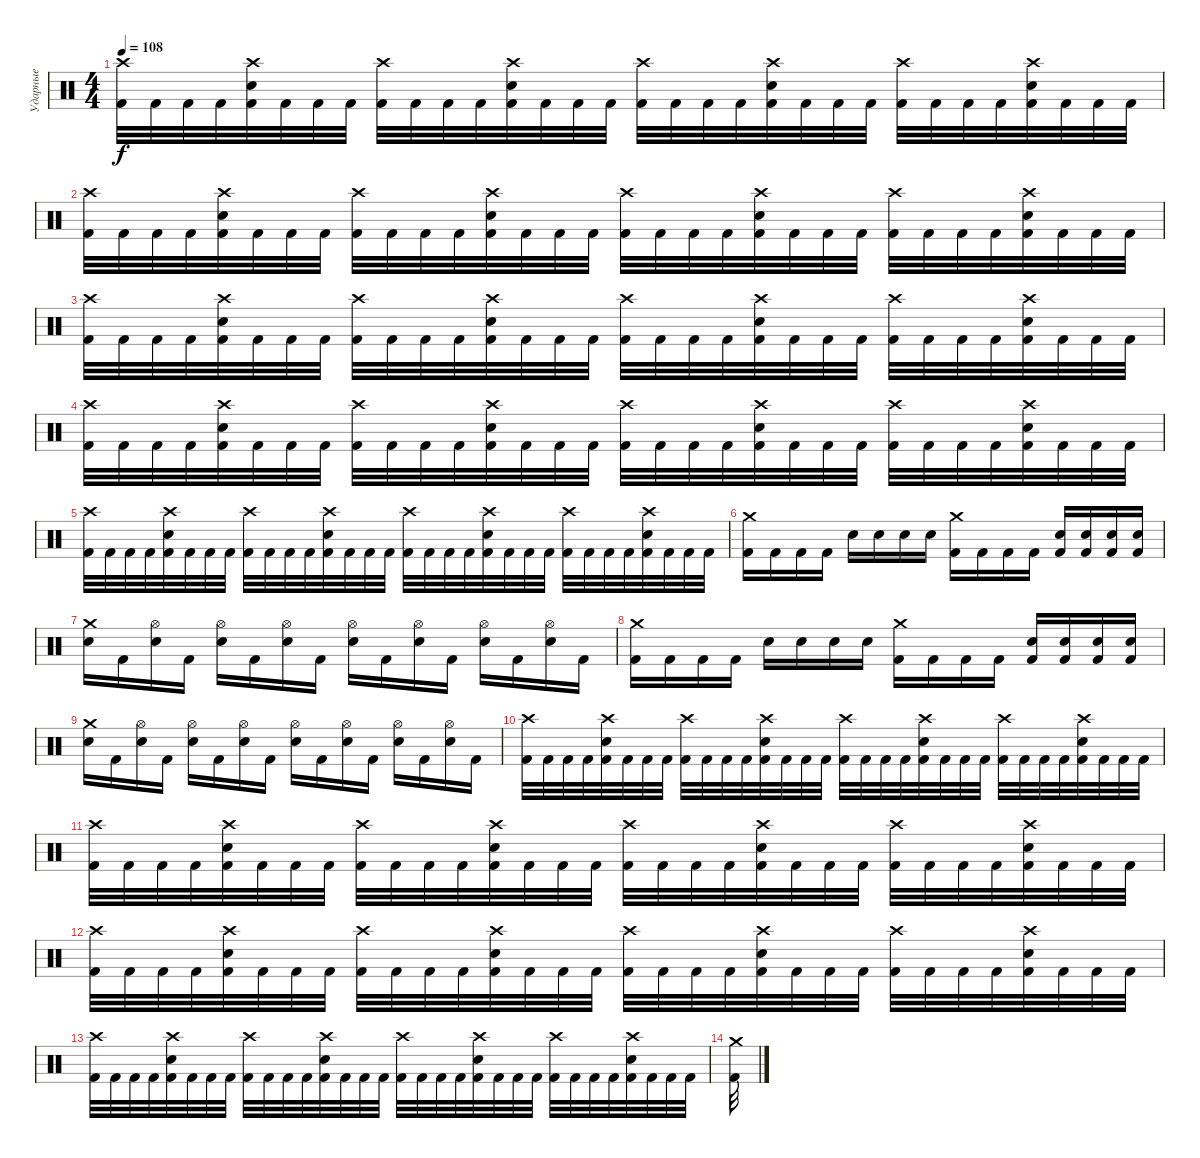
\track ("Ударные" "Ударные") {instrument percussion}
\staff {score}
\articulation defaults
\ts (4 4)
\tempo 108
\clef neutral
\ks c
("Kick (hit) 2" "Crash high (hit)").32{dy f} "Kick (hit) 2".32 "Kick (hit) 2".32 "Kick (hit) 2".32 ("Kick (hit) 2" "Electric Snare (hit)" "Crash high (hit)").32 "Kick (hit) 2".32 "Kick (hit) 2".32 "Kick (hit) 2".32 ("Kick (hit) 2" "Crash high (hit)").32 "Kick (hit) 2".32 "Kick (hit) 2".32 "Kick (hit) 2".32 ("Kick (hit) 2" "Electric Snare (hit)" "Crash high (hit)").32 "Kick (hit) 2".32 "Kick (hit) 2".32 "Kick (hit) 2".32 ("Kick (hit) 2" "Crash high (hit)").32 "Kick (hit) 2".32 "Kick (hit) 2".32 "Kick (hit) 2".32 ("Kick (hit) 2" "Electric Snare (hit)" "Crash high (hit)").32 "Kick (hit) 2".32 "Kick (hit) 2".32 "Kick (hit) 2".32 ("Kick (hit) 2" "Crash high (hit)").32 "Kick (hit) 2".32 "Kick (hit) 2".32 "Kick (hit) 2".32 ("Kick (hit) 2" "Electric Snare (hit)" "Crash high (hit)").32 "Kick (hit) 2".32 "Kick (hit) 2".32 "Kick (hit) 2".32 |
("Kick (hit) 2" "Crash high (hit)").32 "Kick (hit) 2".32 "Kick (hit) 2".32 "Kick (hit) 2".32 ("Kick (hit) 2" "Electric Snare (hit)" "Crash high (hit)").32 "Kick (hit) 2".32 "Kick (hit) 2".32 "Kick (hit) 2".32 ("Kick (hit) 2" "Crash high (hit)").32 "Kick (hit) 2".32 "Kick (hit) 2".32 "Kick (hit) 2".32 ("Kick (hit) 2" "Electric Snare (hit)" "Crash high (hit)").32 "Kick (hit) 2".32 "Kick (hit) 2".32 "Kick (hit) 2".32 ("Kick (hit) 2" "Crash high (hit)").32 "Kick (hit) 2".32 "Kick (hit) 2".32 "Kick (hit) 2".32 ("Kick (hit) 2" "Electric Snare (hit)" "Crash high (hit)").32 "Kick (hit) 2".32 "Kick (hit) 2".32 "Kick (hit) 2".32 ("Kick (hit) 2" "Crash high (hit)").32 "Kick (hit) 2".32 "Kick (hit) 2".32 "Kick (hit) 2".32 ("Kick (hit) 2" "Electric Snare (hit)" "Crash high (hit)").32 "Kick (hit) 2".32 "Kick (hit) 2".32 "Kick (hit) 2".32 |
("Kick (hit) 2" "Crash high (hit)").32 "Kick (hit) 2".32 "Kick (hit) 2".32 "Kick (hit) 2".32 ("Kick (hit) 2" "Electric Snare (hit)" "Crash high (hit)").32 "Kick (hit) 2".32 "Kick (hit) 2".32 "Kick (hit) 2".32 ("Kick (hit) 2" "Crash high (hit)").32 "Kick (hit) 2".32 "Kick (hit) 2".32 "Kick (hit) 2".32 ("Kick (hit) 2" "Electric Snare (hit)" "Crash high (hit)").32 "Kick (hit) 2".32 "Kick (hit) 2".32 "Kick (hit) 2".32 ("Kick (hit) 2" "Crash high (hit)").32 "Kick (hit) 2".32 "Kick (hit) 2".32 "Kick (hit) 2".32 ("Kick (hit) 2" "Electric Snare (hit)" "Crash high (hit)").32 "Kick (hit) 2".32 "Kick (hit) 2".32 "Kick (hit) 2".32 ("Kick (hit) 2" "Crash high (hit)").32 "Kick (hit) 2".32 "Kick (hit) 2".32 "Kick (hit) 2".32 ("Kick (hit) 2" "Electric Snare (hit)" "Crash high (hit)").32 "Kick (hit) 2".32 "Kick (hit) 2".32 "Kick (hit) 2".32 |
("Kick (hit) 2" "Crash high (hit)").32 "Kick (hit) 2".32 "Kick (hit) 2".32 "Kick (hit) 2".32 ("Kick (hit) 2" "Electric Snare (hit)" "Crash high (hit)").32 "Kick (hit) 2".32 "Kick (hit) 2".32 "Kick (hit) 2".32 ("Kick (hit) 2" "Crash high (hit)").32 "Kick (hit) 2".32 "Kick (hit) 2".32 "Kick (hit) 2".32 ("Kick (hit) 2" "Electric Snare (hit)" "Crash high (hit)").32 "Kick (hit) 2".32 "Kick (hit) 2".32 "Kick (hit) 2".32 ("Kick (hit) 2" "Crash high (hit)").32 "Kick (hit) 2".32 "Kick (hit) 2".32 "Kick (hit) 2".32 ("Kick (hit) 2" "Electric Snare (hit)" "Crash high (hit)").32 "Kick (hit) 2".32 "Kick (hit) 2".32 "Kick (hit) 2".32 ("Kick (hit) 2" "Crash high (hit)").32 "Kick (hit) 2".32 "Kick (hit) 2".32 "Kick (hit) 2".32 ("Kick (hit) 2" "Electric Snare (hit)" "Crash high (hit)").32 "Kick (hit) 2".32 "Kick (hit) 2".32 "Kick (hit) 2".32 |
("Kick (hit) 2" "Crash high (hit)").32 "Kick (hit) 2".32 "Kick (hit) 2".32 "Kick (hit) 2".32 ("Kick (hit) 2" "Electric Snare (hit)" "Crash high (hit)").32 "Kick (hit) 2".32 "Kick (hit) 2".32 "Kick (hit) 2".32 ("Kick (hit) 2" "Crash high (hit)").32 "Kick (hit) 2".32 "Kick (hit) 2".32 "Kick (hit) 2".32 ("Kick (hit) 2" "Electric Snare (hit)" "Crash high (hit)").32 "Kick (hit) 2".32 "Kick (hit) 2".32 "Kick (hit) 2".32 ("Kick (hit) 2" "Crash high (hit)").32 "Kick (hit) 2".32 "Kick (hit) 2".32 "Kick (hit) 2".32 ("Kick (hit) 2" "Electric Snare (hit)" "Crash high (hit)").32 "Kick (hit) 2".32 "Kick (hit) 2".32 "Kick (hit) 2".32 ("Kick (hit) 2" "Crash high (hit)").32 "Kick (hit) 2".32 "Kick (hit) 2".32 "Kick (hit) 2".32 ("Kick (hit) 2" "Electric Snare (hit)" "Crash high (hit)").32 "Kick (hit) 2".32 "Kick (hit) 2".32 "Kick (hit) 2".32 |
("Crash medium (hit)" "Kick (hit) 2").16 "Kick (hit) 2".16 "Kick (hit) 2".16 "Kick (hit) 2".16 "Electric Snare (hit)".16 "Electric Snare (hit)".16 "Electric Snare (hit)".16 "Electric Snare (hit)".16 ("Kick (hit) 2" "Crash medium (hit)").16 "Kick (hit) 2".16 "Kick (hit) 2".16 "Kick (hit) 2".16 ("Electric Snare (hit)" "Kick (hit) 2").16 ("Electric Snare (hit)" "Kick (hit) 2").16 ("Electric Snare (hit)" "Kick (hit) 2").16 ("Electric Snare (hit)" "Kick (hit) 2").16 |
("Electric Snare (hit)" "Crash medium (hit)").16 "Kick (hit) 2".16 ("Electric Snare (hit)" "Hi-Hat (open)").16 "Kick (hit) 2".16 ("Electric Snare (hit)" "Hi-Hat (open)").16 "Kick (hit) 2".16 ("Electric Snare (hit)" "Hi-Hat (open)").16 "Kick (hit) 2".16 ("Electric Snare (hit)" "Hi-Hat (open)").16 "Kick (hit) 2".16 ("Electric Snare (hit)" "Hi-Hat (open)").16 "Kick (hit) 2".16 ("Electric Snare (hit)" "Hi-Hat (open)").16 "Kick (hit) 2".16 ("Electric Snare (hit)" "Hi-Hat (open)").16 "Kick (hit) 2".16 |
("Crash medium (hit)" "Kick (hit) 2").16 "Kick (hit) 2".16 "Kick (hit) 2".16 "Kick (hit) 2".16 "Electric Snare (hit)".16 "Electric Snare (hit)".16 "Electric Snare (hit)".16 "Electric Snare (hit)".16 ("Kick (hit) 2" "Crash medium (hit)").16 "Kick (hit) 2".16 "Kick (hit) 2".16 "Kick (hit) 2".16 ("Electric Snare (hit)" "Kick (hit) 2").16 ("Electric Snare (hit)" "Kick (hit) 2").16 ("Electric Snare (hit)" "Kick (hit) 2").16 ("Electric Snare (hit)" "Kick (hit) 2").16 |
("Electric Snare (hit)" "Crash medium (hit)").16 "Kick (hit) 2".16 ("Electric Snare (hit)" "Hi-Hat (open)").16 "Kick (hit) 2".16 ("Electric Snare (hit)" "Hi-Hat (open)").16 "Kick (hit) 2".16 ("Electric Snare (hit)" "Hi-Hat (open)").16 "Kick (hit) 2".16 ("Electric Snare (hit)" "Hi-Hat (open)").16 "Kick (hit) 2".16 ("Electric Snare (hit)" "Hi-Hat (open)").16 "Kick (hit) 2".16 ("Electric Snare (hit)" "Hi-Hat (open)").16 "Kick (hit) 2".16 ("Electric Snare (hit)" "Hi-Hat (open)").16 "Kick (hit) 2".16 |
("Kick (hit) 2" "Crash high (hit)").32 "Kick (hit) 2".32 "Kick (hit) 2".32 "Kick (hit) 2".32 ("Kick (hit) 2" "Electric Snare (hit)" "Crash high (hit)").32 "Kick (hit) 2".32 "Kick (hit) 2".32 "Kick (hit) 2".32 ("Kick (hit) 2" "Crash high (hit)").32 "Kick (hit) 2".32 "Kick (hit) 2".32 "Kick (hit) 2".32 ("Kick (hit) 2" "Electric Snare (hit)" "Crash high (hit)").32 "Kick (hit) 2".32 "Kick (hit) 2".32 "Kick (hit) 2".32 ("Kick (hit) 2" "Crash high (hit)").32 "Kick (hit) 2".32 "Kick (hit) 2".32 "Kick (hit) 2".32 ("Kick (hit) 2" "Electric Snare (hit)" "Crash high (hit)").32 "Kick (hit) 2".32 "Kick (hit) 2".32 "Kick (hit) 2".32 ("Kick (hit) 2" "Crash high (hit)").32 "Kick (hit) 2".32 "Kick (hit) 2".32 "Kick (hit) 2".32 ("Kick (hit) 2" "Electric Snare (hit)" "Crash high (hit)").32 "Kick (hit) 2".32 "Kick (hit) 2".32 "Kick (hit) 2".32 |
("Kick (hit) 2" "Crash high (hit)").32 "Kick (hit) 2".32 "Kick (hit) 2".32 "Kick (hit) 2".32 ("Kick (hit) 2" "Electric Snare (hit)" "Crash high (hit)").32 "Kick (hit) 2".32 "Kick (hit) 2".32 "Kick (hit) 2".32 ("Kick (hit) 2" "Crash high (hit)").32 "Kick (hit) 2".32 "Kick (hit) 2".32 "Kick (hit) 2".32 ("Kick (hit) 2" "Electric Snare (hit)" "Crash high (hit)").32 "Kick (hit) 2".32 "Kick (hit) 2".32 "Kick (hit) 2".32 ("Kick (hit) 2" "Crash high (hit)").32 "Kick (hit) 2".32 "Kick (hit) 2".32 "Kick (hit) 2".32 ("Kick (hit) 2" "Electric Snare (hit)" "Crash high (hit)").32 "Kick (hit) 2".32 "Kick (hit) 2".32 "Kick (hit) 2".32 ("Kick (hit) 2" "Crash high (hit)").32 "Kick (hit) 2".32 "Kick (hit) 2".32 "Kick (hit) 2".32 ("Kick (hit) 2" "Electric Snare (hit)" "Crash high (hit)").32 "Kick (hit) 2".32 "Kick (hit) 2".32 "Kick (hit) 2".32 |
("Kick (hit) 2" "Crash high (hit)").32 "Kick (hit) 2".32 "Kick (hit) 2".32 "Kick (hit) 2".32 ("Kick (hit) 2" "Electric Snare (hit)" "Crash high (hit)").32 "Kick (hit) 2".32 "Kick (hit) 2".32 "Kick (hit) 2".32 ("Kick (hit) 2" "Crash high (hit)").32 "Kick (hit) 2".32 "Kick (hit) 2".32 "Kick (hit) 2".32 ("Kick (hit) 2" "Electric Snare (hit)" "Crash high (hit)").32 "Kick (hit) 2".32 "Kick (hit) 2".32 "Kick (hit) 2".32 ("Kick (hit) 2" "Crash high (hit)").32 "Kick (hit) 2".32 "Kick (hit) 2".32 "Kick (hit) 2".32 ("Kick (hit) 2" "Electric Snare (hit)" "Crash high (hit)").32 "Kick (hit) 2".32 "Kick (hit) 2".32 "Kick (hit) 2".32 ("Kick (hit) 2" "Crash high (hit)").32 "Kick (hit) 2".32 "Kick (hit) 2".32 "Kick (hit) 2".32 ("Kick (hit) 2" "Electric Snare (hit)" "Crash high (hit)").32 "Kick (hit) 2".32 "Kick (hit) 2".32 "Kick (hit) 2".32 |
("Kick (hit) 2" "Crash high (hit)").32 "Kick (hit) 2".32 "Kick (hit) 2".32 "Kick (hit) 2".32 ("Kick (hit) 2" "Electric Snare (hit)" "Crash high (hit)").32 "Kick (hit) 2".32 "Kick (hit) 2".32 "Kick (hit) 2".32 ("Kick (hit) 2" "Crash high (hit)").32 "Kick (hit) 2".32 "Kick (hit) 2".32 "Kick (hit) 2".32 ("Kick (hit) 2" "Electric Snare (hit)" "Crash high (hit)").32 "Kick (hit) 2".32 "Kick (hit) 2".32 "Kick (hit) 2".32 ("Kick (hit) 2" "Crash high (hit)").32 "Kick (hit) 2".32 "Kick (hit) 2".32 "Kick (hit) 2".32 ("Kick (hit) 2" "Electric Snare (hit)" "Crash high (hit)").32 "Kick (hit) 2".32 "Kick (hit) 2".32 "Kick (hit) 2".32 ("Kick (hit) 2" "Crash high (hit)").32 "Kick (hit) 2".32 "Kick (hit) 2".32 "Kick (hit) 2".32 ("Kick (hit) 2" "Electric Snare (hit)" "Crash high (hit)").32 "Kick (hit) 2".32 "Kick (hit) 2".32 "Kick (hit) 2".32 |
("Crash medium (hit)" "Kick (hit) 2").32
